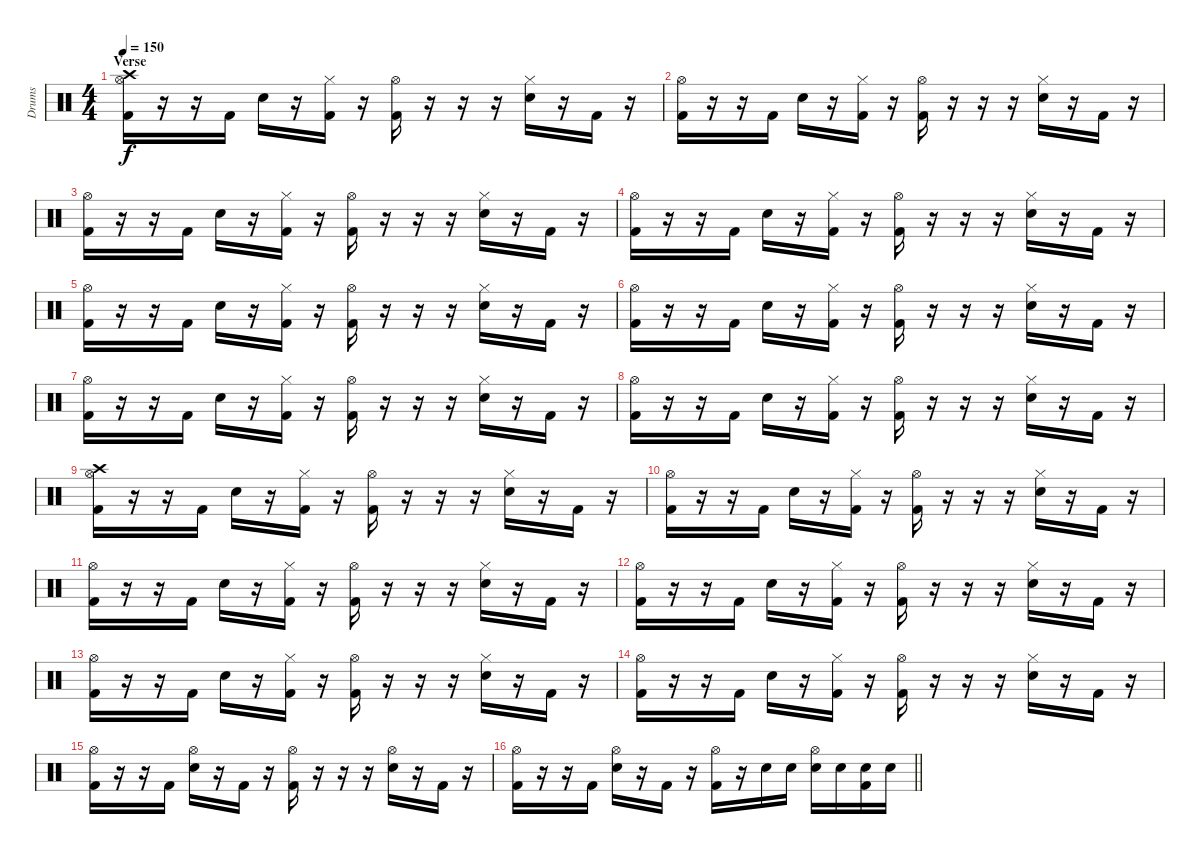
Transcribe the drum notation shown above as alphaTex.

\track ("Drums" "Drums") {instrument percussion}
\staff {score}
\articulation defaults
\ts (4 4)
\section ("" "Verse")
\tempo 150
\clef neutral
\ks c
("Crash high (hit)" "Hi-Hat (open)" "Kick (hit) 2").16{dy f} r.16 r.16 "Kick (hit) 2".16 "Electric Snare (hit)".16 r.16 ("Hi-Hat (closed)" "Kick (hit) 2").16 r.16 ("Hi-Hat (open)" "Kick (hit) 2").16 r.16 r.16 r.16 ("Hi-Hat (closed)" "Electric Snare (hit)").16 r.16 "Kick (hit) 2".16 r.16 |
("Hi-Hat (open)" "Kick (hit) 2").16 r.16 r.16 "Kick (hit) 2".16 "Electric Snare (hit)".16 r.16 ("Hi-Hat (closed)" "Kick (hit) 2").16 r.16 ("Hi-Hat (open)" "Kick (hit) 2").16 r.16 r.16 r.16 ("Hi-Hat (closed)" "Electric Snare (hit)").16 r.16 "Kick (hit) 2".16 r.16 |
("Hi-Hat (open)" "Kick (hit) 2").16 r.16 r.16 "Kick (hit) 2".16 "Electric Snare (hit)".16 r.16 ("Hi-Hat (closed)" "Kick (hit) 2").16 r.16 ("Hi-Hat (open)" "Kick (hit) 2").16 r.16 r.16 r.16 ("Hi-Hat (closed)" "Electric Snare (hit)").16 r.16 "Kick (hit) 2".16 r.16 |
("Hi-Hat (open)" "Kick (hit) 2").16 r.16 r.16 "Kick (hit) 2".16 "Electric Snare (hit)".16 r.16 ("Hi-Hat (closed)" "Kick (hit) 2").16 r.16 ("Hi-Hat (open)" "Kick (hit) 2").16 r.16 r.16 r.16 ("Hi-Hat (closed)" "Electric Snare (hit)").16 r.16 "Kick (hit) 2".16 r.16 |
("Hi-Hat (open)" "Kick (hit) 2").16 r.16 r.16 "Kick (hit) 2".16 "Electric Snare (hit)".16 r.16 ("Hi-Hat (closed)" "Kick (hit) 2").16 r.16 ("Hi-Hat (open)" "Kick (hit) 2").16 r.16 r.16 r.16 ("Hi-Hat (closed)" "Electric Snare (hit)").16 r.16 "Kick (hit) 2".16 r.16 |
("Hi-Hat (open)" "Kick (hit) 2").16 r.16 r.16 "Kick (hit) 2".16 "Electric Snare (hit)".16 r.16 ("Hi-Hat (closed)" "Kick (hit) 2").16 r.16 ("Hi-Hat (open)" "Kick (hit) 2").16 r.16 r.16 r.16 ("Hi-Hat (closed)" "Electric Snare (hit)").16 r.16 "Kick (hit) 2".16 r.16 |
("Hi-Hat (open)" "Kick (hit) 2").16 r.16 r.16 "Kick (hit) 2".16 "Electric Snare (hit)".16 r.16 ("Hi-Hat (closed)" "Kick (hit) 2").16 r.16 ("Hi-Hat (open)" "Kick (hit) 2").16 r.16 r.16 r.16 ("Hi-Hat (closed)" "Electric Snare (hit)").16 r.16 "Kick (hit) 2".16 r.16 |
("Hi-Hat (open)" "Kick (hit) 2").16 r.16 r.16 "Kick (hit) 2".16 "Electric Snare (hit)".16 r.16 ("Hi-Hat (closed)" "Kick (hit) 2").16 r.16 ("Hi-Hat (open)" "Kick (hit) 2").16 r.16 r.16 r.16 ("Hi-Hat (closed)" "Electric Snare (hit)").16 r.16 "Kick (hit) 2".16 r.16 |
("Crash high (hit)" "Hi-Hat (open)" "Kick (hit) 2").16 r.16 r.16 "Kick (hit) 2".16 "Electric Snare (hit)".16 r.16 ("Hi-Hat (closed)" "Kick (hit) 2").16 r.16 ("Hi-Hat (open)" "Kick (hit) 2").16 r.16 r.16 r.16 ("Hi-Hat (closed)" "Electric Snare (hit)").16 r.16 "Kick (hit) 2".16 r.16 |
("Hi-Hat (open)" "Kick (hit) 2").16 r.16 r.16 "Kick (hit) 2".16 "Electric Snare (hit)".16 r.16 ("Hi-Hat (closed)" "Kick (hit) 2").16 r.16 ("Hi-Hat (open)" "Kick (hit) 2").16 r.16 r.16 r.16 ("Hi-Hat (closed)" "Electric Snare (hit)").16 r.16 "Kick (hit) 2".16 r.16 |
("Hi-Hat (open)" "Kick (hit) 2").16 r.16 r.16 "Kick (hit) 2".16 "Electric Snare (hit)".16 r.16 ("Hi-Hat (closed)" "Kick (hit) 2").16 r.16 ("Hi-Hat (open)" "Kick (hit) 2").16 r.16 r.16 r.16 ("Hi-Hat (closed)" "Electric Snare (hit)").16 r.16 "Kick (hit) 2".16 r.16 |
("Hi-Hat (open)" "Kick (hit) 2").16 r.16 r.16 "Kick (hit) 2".16 "Electric Snare (hit)".16 r.16 ("Hi-Hat (closed)" "Kick (hit) 2").16 r.16 ("Hi-Hat (open)" "Kick (hit) 2").16 r.16 r.16 r.16 ("Hi-Hat (closed)" "Electric Snare (hit)").16 r.16 "Kick (hit) 2".16 r.16 |
("Hi-Hat (open)" "Kick (hit) 2").16 r.16 r.16 "Kick (hit) 2".16 "Electric Snare (hit)".16 r.16 ("Hi-Hat (closed)" "Kick (hit) 2").16 r.16 ("Hi-Hat (open)" "Kick (hit) 2").16 r.16 r.16 r.16 ("Hi-Hat (closed)" "Electric Snare (hit)").16 r.16 "Kick (hit) 2".16 r.16 |
("Hi-Hat (open)" "Kick (hit) 2").16 r.16 r.16 "Kick (hit) 2".16 "Electric Snare (hit)".16 r.16 ("Hi-Hat (closed)" "Kick (hit) 2").16 r.16 ("Hi-Hat (open)" "Kick (hit) 2").16 r.16 r.16 r.16 ("Hi-Hat (closed)" "Electric Snare (hit)").16 r.16 "Kick (hit) 2".16 r.16 |
("Hi-Hat (open)" "Kick (hit) 2").16 r.16 r.16 "Kick (hit) 2".16 ("Hi-Hat (open)" "Electric Snare (hit)").16 r.16 "Kick (hit) 2".16 r.16 ("Hi-Hat (open)" "Kick (hit) 2").16 r.16 r.16 r.16 ("Hi-Hat (open)" "Electric Snare (hit)").16 r.16 "Kick (hit) 2".16 r.16 |
\barLineRight lightlight
("Hi-Hat (open)" "Kick (hit) 2").16 r.16 r.16 "Kick (hit) 2".16 ("Hi-Hat (open)" "Electric Snare (hit)").16 r.16 "Kick (hit) 2".16 r.16 ("Hi-Hat (open)" "Kick (hit) 2").16 r.16 "Electric Snare (hit)".16 "Electric Snare (hit)".16 ("Hi-Hat (open)" "Electric Snare (hit)").16 "Electric Snare (hit)".16 ("Electric Snare (hit)" "Kick (hit) 2").16 "Electric Snare (hit)".16
